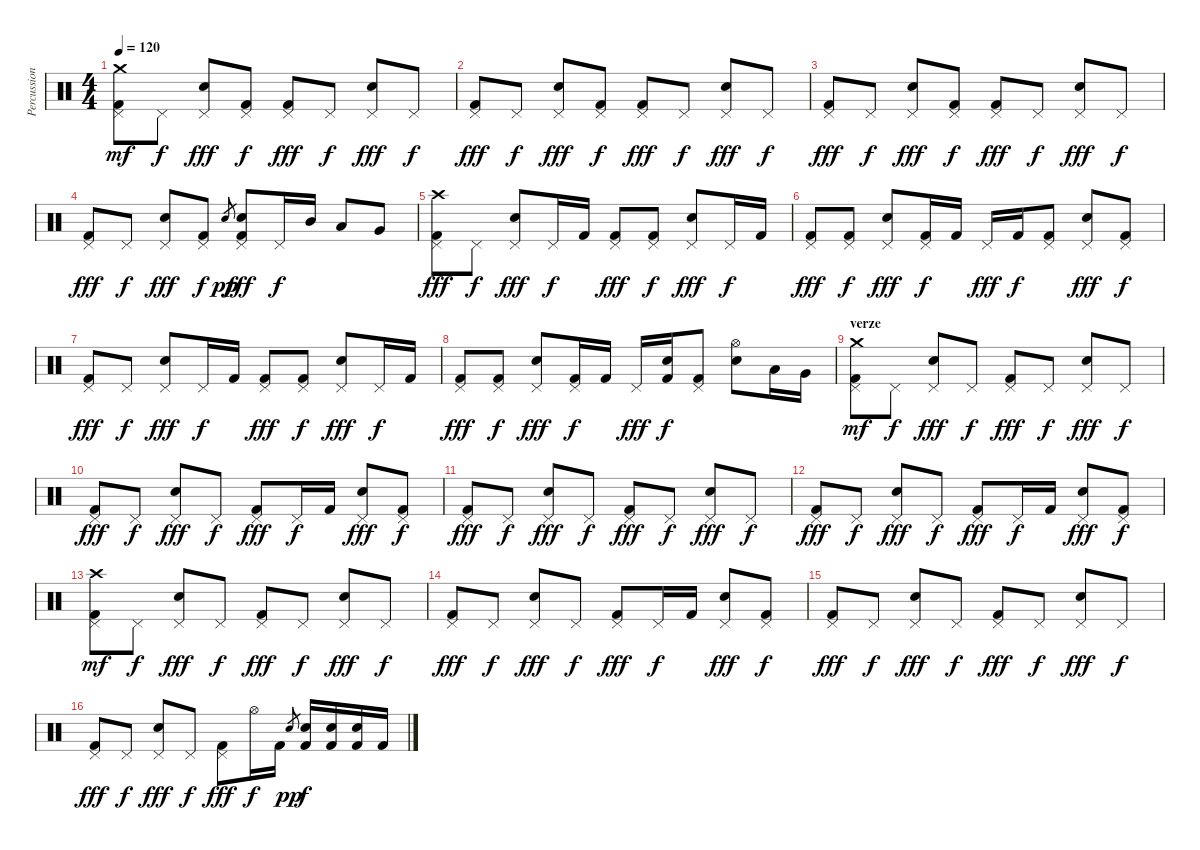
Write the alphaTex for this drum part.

\track ("Percussion" "Percussion") {instrument percussion}
\staff {score}
\articulation defaults
\ts (4 4)
\tempo 120
\clef neutral
\ks c
("Pedal Hi-Hat (hit)" "Kick (hit) 2" "Crash medium (hit)").8{dy mf} "Pedal Hi-Hat (hit)".8{dy f} ("Pedal Hi-Hat (hit)" "Snare (hit) 2").8{dy fff} ("Pedal Hi-Hat (hit)" "Kick (hit) 2").8{dy f} ("Pedal Hi-Hat (hit)" "Kick (hit) 2").8{dy fff} "Pedal Hi-Hat (hit)".8{dy f} ("Pedal Hi-Hat (hit)" "Snare (hit) 2").8{dy fff} "Pedal Hi-Hat (hit)".8{dy f} |
("Pedal Hi-Hat (hit)" "Kick (hit) 2").8{dy fff} "Pedal Hi-Hat (hit)".8{dy f} ("Pedal Hi-Hat (hit)" "Snare (hit) 2").8{dy fff} ("Pedal Hi-Hat (hit)" "Kick (hit) 2").8{dy f} ("Pedal Hi-Hat (hit)" "Kick (hit) 2").8{dy fff} "Pedal Hi-Hat (hit)".8{dy f} ("Pedal Hi-Hat (hit)" "Snare (hit) 2").8{dy fff} "Pedal Hi-Hat (hit)".8{dy f} |
("Pedal Hi-Hat (hit)" "Kick (hit) 2").8{dy fff} "Pedal Hi-Hat (hit)".8{dy f} ("Pedal Hi-Hat (hit)" "Snare (hit) 2").8{dy fff} ("Pedal Hi-Hat (hit)" "Kick (hit) 2").8{dy f} ("Pedal Hi-Hat (hit)" "Kick (hit) 2").8{dy fff} "Pedal Hi-Hat (hit)".8{dy f} ("Pedal Hi-Hat (hit)" "Snare (hit) 2").8{dy fff} "Pedal Hi-Hat (hit)".8{dy f} |
("Pedal Hi-Hat (hit)" "Kick (hit) 2").8{dy fff} "Pedal Hi-Hat (hit)".8{dy f} ("Pedal Hi-Hat (hit)" "Snare (hit) 2").8{dy fff} ("Pedal Hi-Hat (hit)" "Kick (hit) 2").8{dy f} "Snare (hit) 2".8{gr dy pp} ("Pedal Hi-Hat (hit)" "Kick (hit) 2" "Snare (hit) 2").8{dy fff} "Pedal Hi-Hat (hit)".16{dy f} "Mid Tom (hit)".16 "Low Tom (hit)".8 "Very Low Tom (hit)".8 |
("Pedal Hi-Hat (hit)" "Kick (hit) 2" "Crash high (hit)").8{dy fff} "Pedal Hi-Hat (hit)".8{dy f} ("Pedal Hi-Hat (hit)" "Snare (hit) 2").8{dy fff} "Pedal Hi-Hat (hit)".16{dy f} "Kick (hit) 2".16 ("Pedal Hi-Hat (hit)" "Kick (hit) 2").8{dy fff} ("Pedal Hi-Hat (hit)" "Kick (hit) 2").8{dy f} ("Pedal Hi-Hat (hit)" "Snare (hit) 2").8{dy fff} "Pedal Hi-Hat (hit)".16{dy f} "Kick (hit) 2".16 |
("Pedal Hi-Hat (hit)" "Kick (hit) 2").8{dy fff} ("Pedal Hi-Hat (hit)" "Kick (hit) 2").8{dy f} ("Pedal Hi-Hat (hit)" "Snare (hit) 2").8{dy fff} ("Pedal Hi-Hat (hit)" "Kick (hit) 2").16{dy f} "Kick (hit) 2".16 "Pedal Hi-Hat (hit)".16{dy fff} "Kick (hit) 2".16{dy f} ("Pedal Hi-Hat (hit)" "Kick (hit) 2").8 ("Pedal Hi-Hat (hit)" "Snare (hit) 2").8{dy fff} ("Pedal Hi-Hat (hit)" "Kick (hit) 2").8{dy f} |
("Pedal Hi-Hat (hit)" "Kick (hit) 2").8{dy fff} "Pedal Hi-Hat (hit)".8{dy f} ("Pedal Hi-Hat (hit)" "Snare (hit) 2").8{dy fff} "Pedal Hi-Hat (hit)".16{dy f} "Kick (hit) 2".16 ("Pedal Hi-Hat (hit)" "Kick (hit) 2").8{dy fff} ("Pedal Hi-Hat (hit)" "Kick (hit) 2").8{dy f} ("Pedal Hi-Hat (hit)" "Snare (hit) 2").8{dy fff} "Pedal Hi-Hat (hit)".16{dy f} "Kick (hit) 2".16 |
("Pedal Hi-Hat (hit)" "Kick (hit) 2").8{dy fff} ("Pedal Hi-Hat (hit)" "Kick (hit) 2").8{dy f} ("Pedal Hi-Hat (hit)" "Snare (hit) 2").8{dy fff} ("Pedal Hi-Hat (hit)" "Kick (hit) 2").16{dy f} "Kick (hit) 2".16 "Pedal Hi-Hat (hit)".16{dy fff} ("Kick (hit) 2" "Snare (hit) 2").16{dy f} ("Pedal Hi-Hat (hit)" "Kick (hit) 2").8 ("Hi-Hat (open)" "Snare (hit) 2").8 "Low Tom (hit)".16 "Very Low Tom (hit)".16 |
\section ("" "verze")
("Pedal Hi-Hat (hit)" "Kick (hit) 2" "Crash medium (hit)").8{dy mf} "Pedal Hi-Hat (hit)".8{dy f} ("Pedal Hi-Hat (hit)" "Snare (hit) 2").8{dy fff} "Pedal Hi-Hat (hit)".8{dy f} ("Pedal Hi-Hat (hit)" "Kick (hit) 2").8{dy fff} "Pedal Hi-Hat (hit)".8{dy f} ("Pedal Hi-Hat (hit)" "Snare (hit) 2").8{dy fff} "Pedal Hi-Hat (hit)".8{dy f} |
("Pedal Hi-Hat (hit)" "Kick (hit) 2").8{dy fff} "Pedal Hi-Hat (hit)".8{dy f} ("Pedal Hi-Hat (hit)" "Snare (hit) 2").8{dy fff} "Pedal Hi-Hat (hit)".8{dy f} ("Pedal Hi-Hat (hit)" "Kick (hit) 2").8{dy fff} "Pedal Hi-Hat (hit)".16{dy f} "Kick (hit) 2".16 ("Pedal Hi-Hat (hit)" "Snare (hit) 2").8{dy fff} ("Pedal Hi-Hat (hit)" "Kick (hit) 2").8{dy f} |
("Pedal Hi-Hat (hit)" "Kick (hit) 2").8{dy fff} "Pedal Hi-Hat (hit)".8{dy f} ("Pedal Hi-Hat (hit)" "Snare (hit) 2").8{dy fff} "Pedal Hi-Hat (hit)".8{dy f} ("Pedal Hi-Hat (hit)" "Kick (hit) 2").8{dy fff} "Pedal Hi-Hat (hit)".8{dy f} ("Pedal Hi-Hat (hit)" "Snare (hit) 2").8{dy fff} "Pedal Hi-Hat (hit)".8{dy f} |
("Pedal Hi-Hat (hit)" "Kick (hit) 2").8{dy fff} "Pedal Hi-Hat (hit)".8{dy f} ("Pedal Hi-Hat (hit)" "Snare (hit) 2").8{dy fff} "Pedal Hi-Hat (hit)".8{dy f} ("Pedal Hi-Hat (hit)" "Kick (hit) 2").8{dy fff} "Pedal Hi-Hat (hit)".16{dy f} "Kick (hit) 2".16 ("Pedal Hi-Hat (hit)" "Snare (hit) 2").8{dy fff} ("Pedal Hi-Hat (hit)" "Kick (hit) 2").8{dy f} |
("Pedal Hi-Hat (hit)" "Kick (hit) 2" "Crash high (hit)").8{dy mf} "Pedal Hi-Hat (hit)".8{dy f} ("Pedal Hi-Hat (hit)" "Snare (hit) 2").8{dy fff} "Pedal Hi-Hat (hit)".8{dy f} ("Pedal Hi-Hat (hit)" "Kick (hit) 2").8{dy fff} "Pedal Hi-Hat (hit)".8{dy f} ("Pedal Hi-Hat (hit)" "Snare (hit) 2").8{dy fff} "Pedal Hi-Hat (hit)".8{dy f} |
("Pedal Hi-Hat (hit)" "Kick (hit) 2").8{dy fff} "Pedal Hi-Hat (hit)".8{dy f} ("Pedal Hi-Hat (hit)" "Snare (hit) 2").8{dy fff} "Pedal Hi-Hat (hit)".8{dy f} ("Pedal Hi-Hat (hit)" "Kick (hit) 2").8{dy fff} "Pedal Hi-Hat (hit)".16{dy f} "Kick (hit) 2".16 ("Pedal Hi-Hat (hit)" "Snare (hit) 2").8{dy fff} ("Pedal Hi-Hat (hit)" "Kick (hit) 2").8{dy f} |
("Pedal Hi-Hat (hit)" "Kick (hit) 2").8{dy fff} "Pedal Hi-Hat (hit)".8{dy f} ("Pedal Hi-Hat (hit)" "Snare (hit) 2").8{dy fff} "Pedal Hi-Hat (hit)".8{dy f} ("Pedal Hi-Hat (hit)" "Kick (hit) 2").8{dy fff} "Pedal Hi-Hat (hit)".8{dy f} ("Pedal Hi-Hat (hit)" "Snare (hit) 2").8{dy fff} "Pedal Hi-Hat (hit)".8{dy f} |
("Pedal Hi-Hat (hit)" "Kick (hit) 2").8{dy fff} "Pedal Hi-Hat (hit)".8{dy f} ("Pedal Hi-Hat (hit)" "Snare (hit) 2").8{dy fff} "Pedal Hi-Hat (hit)".8{dy f} ("Pedal Hi-Hat (hit)" "Kick (hit) 2").8{dy fff} "Hi-Hat (open)".16{dy f} "Kick (hit) 2".16 "Snare (hit) 2".8{gr dy pp} ("Kick (hit) 2" "Snare (hit) 2").16{dy f} ("Kick (hit) 2" "Snare (hit) 2").16 ("Kick (hit) 2" "Snare (hit) 2").16 "Kick (hit) 2".16
